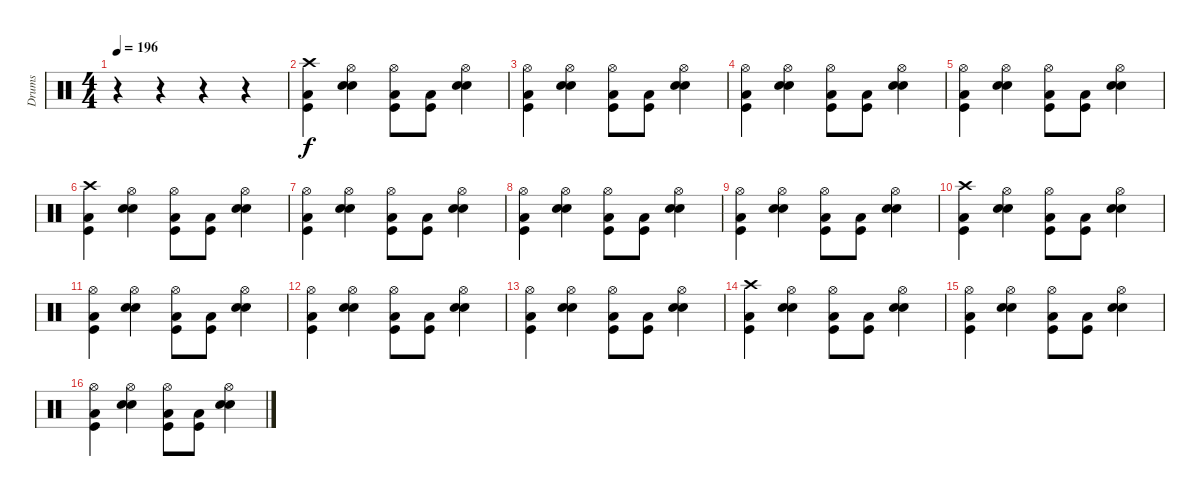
\track ("Drums" "Drums") {instrument percussion}
\staff {score}
\articulation defaults
\ts (4 4)
\tempo 196
\clef neutral
\ks c
r.4{dy f} r.4 r.4 r.4 |
("Crash high (hit)" "Kick (hit)" "Low Tom (hit)").4 ("Hi-Hat (open)" "Snare (hit) 2" "Electric Snare (hit)").4 ("Hi-Hat (open)" "Kick (hit)" "Low Tom (hit)").8 ("Kick (hit)" "Low Tom (hit)").8 ("Hi-Hat (open)" "Snare (hit) 2" "Electric Snare (hit)").4 |
("Hi-Hat (open)" "Kick (hit)" "Low Tom (hit)").4 ("Hi-Hat (open)" "Snare (hit) 2" "Electric Snare (hit)").4 ("Hi-Hat (open)" "Kick (hit)" "Low Tom (hit)").8 ("Kick (hit)" "Low Tom (hit)").8 ("Hi-Hat (open)" "Snare (hit) 2" "Electric Snare (hit)").4 |
("Hi-Hat (open)" "Kick (hit)" "Low Tom (hit)").4 ("Hi-Hat (open)" "Snare (hit) 2" "Electric Snare (hit)").4 ("Hi-Hat (open)" "Kick (hit)" "Low Tom (hit)").8 ("Kick (hit)" "Low Tom (hit)").8 ("Hi-Hat (open)" "Snare (hit) 2" "Electric Snare (hit)").4 |
("Hi-Hat (open)" "Kick (hit)" "Low Tom (hit)").4 ("Hi-Hat (open)" "Snare (hit) 2" "Electric Snare (hit)").4 ("Hi-Hat (open)" "Kick (hit)" "Low Tom (hit)").8 ("Kick (hit)" "Low Tom (hit)").8 ("Hi-Hat (open)" "Snare (hit) 2" "Electric Snare (hit)").4 |
("Crash high (hit)" "Kick (hit)" "Low Tom (hit)").4 ("Hi-Hat (open)" "Snare (hit) 2" "Electric Snare (hit)").4 ("Hi-Hat (open)" "Kick (hit)" "Low Tom (hit)").8 ("Kick (hit)" "Low Tom (hit)").8 ("Hi-Hat (open)" "Snare (hit) 2" "Electric Snare (hit)").4 |
("Hi-Hat (open)" "Kick (hit)" "Low Tom (hit)").4 ("Hi-Hat (open)" "Snare (hit) 2" "Electric Snare (hit)").4 ("Hi-Hat (open)" "Kick (hit)" "Low Tom (hit)").8 ("Kick (hit)" "Low Tom (hit)").8 ("Hi-Hat (open)" "Snare (hit) 2" "Electric Snare (hit)").4 |
("Hi-Hat (open)" "Kick (hit)" "Low Tom (hit)").4 ("Hi-Hat (open)" "Snare (hit) 2" "Electric Snare (hit)").4 ("Hi-Hat (open)" "Kick (hit)" "Low Tom (hit)").8 ("Kick (hit)" "Low Tom (hit)").8 ("Hi-Hat (open)" "Snare (hit) 2" "Electric Snare (hit)").4 |
("Hi-Hat (open)" "Kick (hit)" "Low Tom (hit)").4 ("Hi-Hat (open)" "Snare (hit) 2" "Electric Snare (hit)").4 ("Hi-Hat (open)" "Kick (hit)" "Low Tom (hit)").8 ("Kick (hit)" "Low Tom (hit)").8 ("Hi-Hat (open)" "Snare (hit) 2" "Electric Snare (hit)").4 |
("Crash high (hit)" "Kick (hit)" "Low Tom (hit)").4 ("Hi-Hat (open)" "Snare (hit) 2" "Electric Snare (hit)").4 ("Hi-Hat (open)" "Kick (hit)" "Low Tom (hit)").8 ("Kick (hit)" "Low Tom (hit)").8 ("Hi-Hat (open)" "Snare (hit) 2" "Electric Snare (hit)").4 |
("Hi-Hat (open)" "Kick (hit)" "Low Tom (hit)").4 ("Hi-Hat (open)" "Snare (hit) 2" "Electric Snare (hit)").4 ("Hi-Hat (open)" "Kick (hit)" "Low Tom (hit)").8 ("Kick (hit)" "Low Tom (hit)").8 ("Hi-Hat (open)" "Snare (hit) 2" "Electric Snare (hit)").4 |
("Hi-Hat (open)" "Kick (hit)" "Low Tom (hit)").4 ("Hi-Hat (open)" "Snare (hit) 2" "Electric Snare (hit)").4 ("Hi-Hat (open)" "Kick (hit)" "Low Tom (hit)").8 ("Kick (hit)" "Low Tom (hit)").8 ("Hi-Hat (open)" "Snare (hit) 2" "Electric Snare (hit)").4 |
("Hi-Hat (open)" "Kick (hit)" "Low Tom (hit)").4 ("Hi-Hat (open)" "Snare (hit) 2" "Electric Snare (hit)").4 ("Hi-Hat (open)" "Kick (hit)" "Low Tom (hit)").8 ("Kick (hit)" "Low Tom (hit)").8 ("Hi-Hat (open)" "Snare (hit) 2" "Electric Snare (hit)").4 |
("Crash high (hit)" "Kick (hit)" "Low Tom (hit)").4 ("Hi-Hat (open)" "Snare (hit) 2" "Electric Snare (hit)").4 ("Hi-Hat (open)" "Kick (hit)" "Low Tom (hit)").8 ("Kick (hit)" "Low Tom (hit)").8 ("Hi-Hat (open)" "Snare (hit) 2" "Electric Snare (hit)").4 |
("Hi-Hat (open)" "Kick (hit)" "Low Tom (hit)").4 ("Hi-Hat (open)" "Snare (hit) 2" "Electric Snare (hit)").4 ("Hi-Hat (open)" "Kick (hit)" "Low Tom (hit)").8 ("Kick (hit)" "Low Tom (hit)").8 ("Hi-Hat (open)" "Snare (hit) 2" "Electric Snare (hit)").4 |
("Hi-Hat (open)" "Kick (hit)" "Low Tom (hit)").4 ("Hi-Hat (open)" "Snare (hit) 2" "Electric Snare (hit)").4 ("Hi-Hat (open)" "Kick (hit)" "Low Tom (hit)").8 ("Kick (hit)" "Low Tom (hit)").8 ("Hi-Hat (open)" "Snare (hit) 2" "Electric Snare (hit)").4
